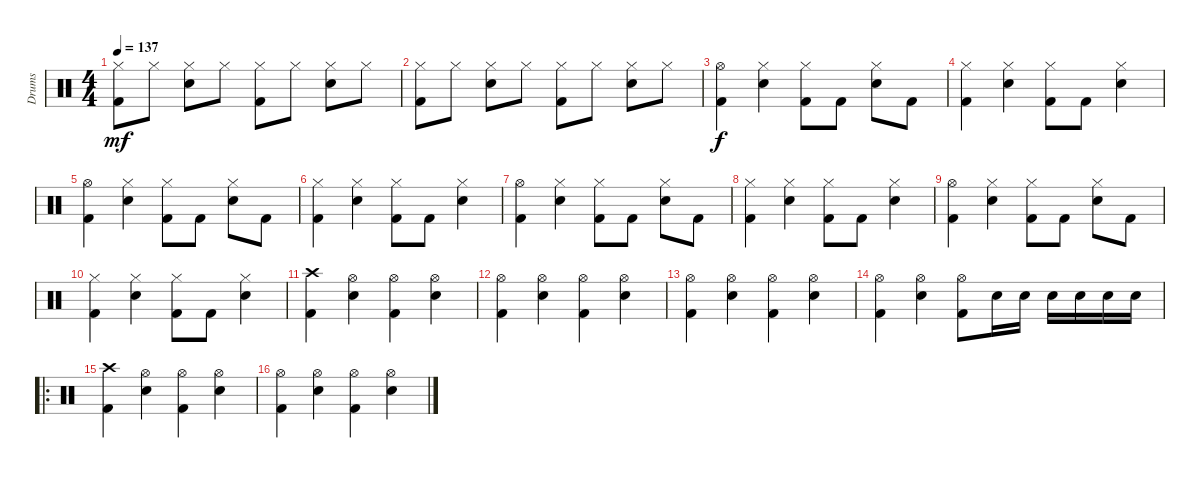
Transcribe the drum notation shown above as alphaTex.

\track ("Drums" "Drums") {instrument percussion}
\staff {score}
\articulation defaults
\ts (4 4)
\tempo 137
\clef neutral
\ks c
("Hi-Hat (closed)" "Kick (hit) 2").8{dy mf} "Hi-Hat (closed)".8 ("Hi-Hat (closed)" "Snare (hit) 2").8 "Hi-Hat (closed)".8 ("Hi-Hat (closed)" "Kick (hit) 2").8 "Hi-Hat (closed)".8 ("Hi-Hat (closed)" "Snare (hit) 2").8 "Hi-Hat (closed)".8 |
("Hi-Hat (closed)" "Kick (hit) 2").8 "Hi-Hat (closed)".8 ("Hi-Hat (closed)" "Snare (hit) 2").8 "Hi-Hat (closed)".8 ("Hi-Hat (closed)" "Kick (hit) 2").8 "Hi-Hat (closed)".8 ("Hi-Hat (closed)" "Snare (hit) 2").8 "Hi-Hat (closed)".8 |
("Hi-Hat (open)" "Kick (hit) 2").4{dy f} ("Hi-Hat (closed)" "Electric Snare (hit)").4 ("Hi-Hat (closed)" "Kick (hit) 2").8 "Kick (hit) 2".8 ("Hi-Hat (closed)" "Electric Snare (hit)").8 "Kick (hit) 2".8 |
("Hi-Hat (closed)" "Kick (hit) 2").4 ("Hi-Hat (closed)" "Electric Snare (hit)").4 ("Hi-Hat (closed)" "Kick (hit) 2").8 "Kick (hit) 2".8 ("Hi-Hat (closed)" "Electric Snare (hit)").4 |
("Hi-Hat (open)" "Kick (hit) 2").4 ("Hi-Hat (closed)" "Electric Snare (hit)").4 ("Hi-Hat (closed)" "Kick (hit) 2").8 "Kick (hit) 2".8 ("Hi-Hat (closed)" "Electric Snare (hit)").8 "Kick (hit) 2".8 |
("Hi-Hat (closed)" "Kick (hit) 2").4 ("Hi-Hat (closed)" "Electric Snare (hit)").4 ("Hi-Hat (closed)" "Kick (hit) 2").8 "Kick (hit) 2".8 ("Hi-Hat (closed)" "Electric Snare (hit)").4 |
("Hi-Hat (open)" "Kick (hit) 2").4 ("Hi-Hat (closed)" "Electric Snare (hit)").4 ("Hi-Hat (closed)" "Kick (hit) 2").8 "Kick (hit) 2".8 ("Hi-Hat (closed)" "Electric Snare (hit)").8 "Kick (hit) 2".8 |
("Hi-Hat (closed)" "Kick (hit) 2").4 ("Hi-Hat (closed)" "Electric Snare (hit)").4 ("Hi-Hat (closed)" "Kick (hit) 2").8 "Kick (hit) 2".8 ("Hi-Hat (closed)" "Electric Snare (hit)").4 |
("Hi-Hat (open)" "Kick (hit) 2").4 ("Hi-Hat (closed)" "Electric Snare (hit)").4 ("Hi-Hat (closed)" "Kick (hit) 2").8 "Kick (hit) 2".8 ("Hi-Hat (closed)" "Electric Snare (hit)").8 "Kick (hit) 2".8 |
("Hi-Hat (closed)" "Kick (hit) 2").4 ("Hi-Hat (closed)" "Electric Snare (hit)").4 ("Hi-Hat (closed)" "Kick (hit) 2").8 "Kick (hit) 2".8 ("Hi-Hat (closed)" "Electric Snare (hit)").4 |
("Crash high (hit)" "Kick (hit) 2").4{volume 16} ("Hi-Hat (open)" "Snare (hit) 2").4 ("Hi-Hat (open)" "Kick (hit) 2").4 ("Hi-Hat (open)" "Snare (hit) 2").4 |
("Hi-Hat (open)" "Kick (hit) 2").4{volume 16} ("Hi-Hat (open)" "Snare (hit) 2").4 ("Hi-Hat (open)" "Kick (hit) 2").4 ("Hi-Hat (open)" "Snare (hit) 2").4 |
("Hi-Hat (open)" "Kick (hit) 2").4{volume 16} ("Hi-Hat (open)" "Snare (hit) 2").4 ("Hi-Hat (open)" "Kick (hit) 2").4 ("Hi-Hat (open)" "Snare (hit) 2").4 |
("Hi-Hat (open)" "Kick (hit) 2").4{volume 16} ("Hi-Hat (open)" "Snare (hit) 2").4 ("Hi-Hat (open)" "Kick (hit) 2").8 "Snare (hit) 2".16 "Snare (hit) 2".16 "Snare (hit) 2".16 "Snare (hit) 2".16 "Snare (hit) 2".16 "Snare (hit) 2".16 |
\ro
("Crash high (hit)" "Kick (hit) 2").4{volume 16} ("Hi-Hat (open)" "Snare (hit) 2").4 ("Hi-Hat (open)" "Kick (hit) 2").4 ("Hi-Hat (open)" "Snare (hit) 2").4 |
("Hi-Hat (open)" "Kick (hit) 2").4{volume 16} ("Hi-Hat (open)" "Snare (hit) 2").4 ("Hi-Hat (open)" "Kick (hit) 2").4 ("Hi-Hat (open)" "Snare (hit) 2").4
